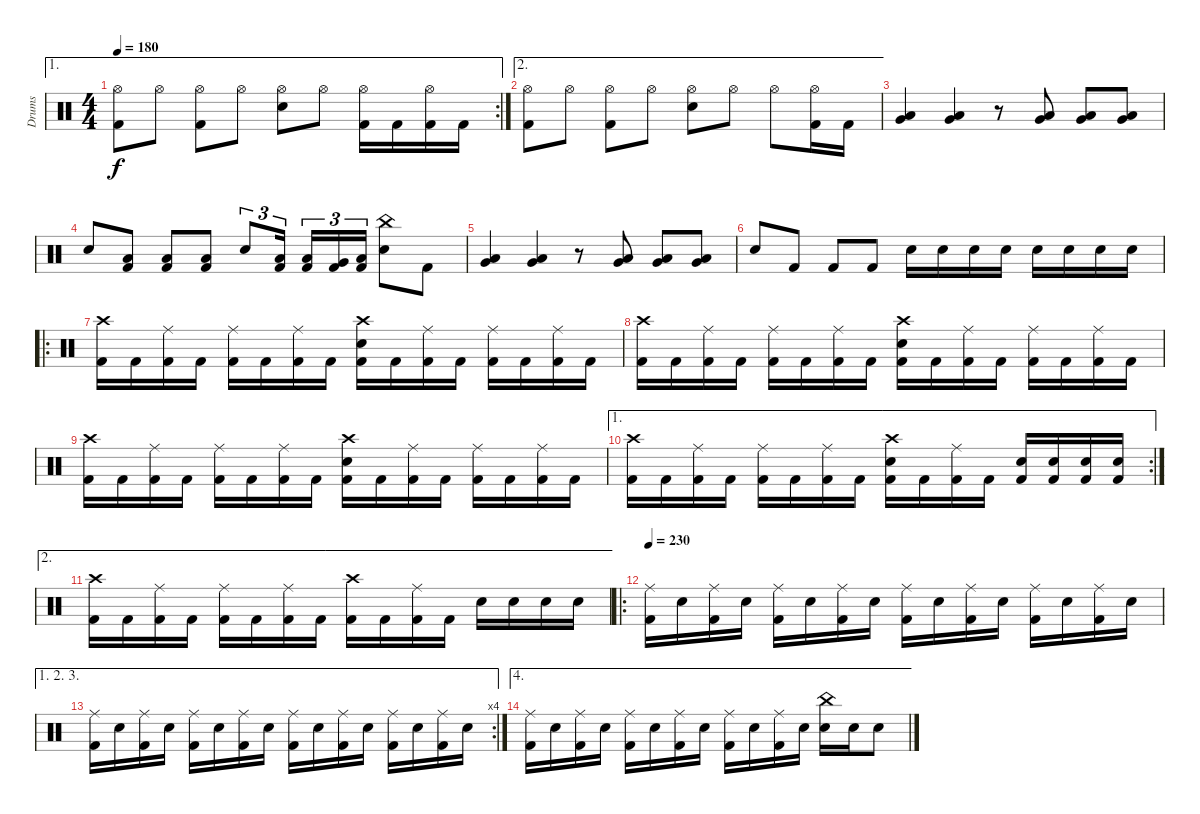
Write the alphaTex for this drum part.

\track ("Drums" "Drums") {instrument percussion}
\staff {score}
\articulation defaults
\ae 1
\rc 2
\ts (4 4)
\tempo 180
\clef neutral
\ks c
("Hi-Hat (open)" "Kick (hit) 2").8{dy f} "Hi-Hat (open)".8 ("Hi-Hat (open)" "Kick (hit) 2").8 "Hi-Hat (open)".8 ("Hi-Hat (open)" "Electric Snare (hit)").8 "Hi-Hat (open)".8 ("Hi-Hat (open)" "Kick (hit) 2").16 "Kick (hit) 2".16 ("Hi-Hat (open)" "Kick (hit) 2").16 "Kick (hit) 2".16 |
\ae 2
("Hi-Hat (open)" "Kick (hit) 2").8 "Hi-Hat (open)".8 ("Hi-Hat (open)" "Kick (hit) 2").8 "Hi-Hat (open)".8 ("Hi-Hat (open)" "Electric Snare (hit)").8 "Hi-Hat (open)".8 "Hi-Hat (open)".8 ("Hi-Hat (open)" "Kick (hit) 2").16 "Kick (hit) 2".16 |
("Low Tom (hit)" "Very Low Tom (hit)").4 ("Low Tom (hit)" "Very Low Tom (hit)").4 r.8 ("Low Tom (hit)" "Very Low Tom (hit)").8 ("Low Tom (hit)" "Very Low Tom (hit)").8 ("Low Tom (hit)" "Very Low Tom (hit)").8 |
"Electric Snare (hit)".8 ("Kick (hit) 2" "Low Floor Tom (hit)").8 ("Kick (hit) 2" "Low Floor Tom (hit)").8 ("Kick (hit) 2" "Low Floor Tom (hit)").8 "Electric Snare (hit)".8{tu (3 2)} ("Low Tom (hit)" "Kick (hit) 2").16{tu (3 2) beam splitsecondary} ("Low Tom (hit)" "Kick (hit) 2").16{tu (3 2)} ("Very Low Tom (hit)" "Kick (hit) 2").16{tu (3 2)} ("Low Floor Tom (hit)" "Kick (hit) 2").16{tu (3 2)} ("China (hit)" "Electric Snare (hit)").8 "Kick (hit) 2".8 |
("Low Tom (hit)" "Very Low Tom (hit)").4 ("Low Tom (hit)" "Very Low Tom (hit)").4 r.8 ("Low Tom (hit)" "Very Low Tom (hit)").8 ("Low Tom (hit)" "Very Low Tom (hit)").8 ("Low Tom (hit)" "Very Low Tom (hit)").8 |
"Electric Snare (hit)".8 "Kick (hit) 2".8 "Kick (hit) 2".8 "Kick (hit) 2".8 "Electric Snare (hit)".16 "Electric Snare (hit)".16 "Electric Snare (hit)".16 "Electric Snare (hit)".16 "Electric Snare (hit)".16 "Electric Snare (hit)".16 "Electric Snare (hit)".16 "Electric Snare (hit)".16 |
\ro
("Crash high (hit)" "Kick (hit) 2").16 "Kick (hit) 2".16 ("Ride (middle)" "Kick (hit) 2").16 "Kick (hit) 2".16 ("Ride (middle)" "Kick (hit) 2").16 "Kick (hit) 2".16 ("Ride (middle)" "Kick (hit) 2").16 "Kick (hit) 2".16 ("Electric Snare (hit)" "Crash high (hit)" "Kick (hit) 2").16 "Kick (hit) 2".16 ("Ride (middle)" "Kick (hit) 2").16 "Kick (hit) 2".16 ("Ride (middle)" "Kick (hit) 2").16 "Kick (hit) 2".16 ("Ride (middle)" "Kick (hit) 2").16 "Kick (hit) 2".16 |
("Crash high (hit)" "Kick (hit) 2").16 "Kick (hit) 2".16 ("Ride (middle)" "Kick (hit) 2").16 "Kick (hit) 2".16 ("Ride (middle)" "Kick (hit) 2").16 "Kick (hit) 2".16 ("Ride (middle)" "Kick (hit) 2").16 "Kick (hit) 2".16 ("Electric Snare (hit)" "Crash high (hit)" "Kick (hit) 2").16 "Kick (hit) 2".16 ("Ride (middle)" "Kick (hit) 2").16 "Kick (hit) 2".16 ("Ride (middle)" "Kick (hit) 2").16 "Kick (hit) 2".16 ("Ride (middle)" "Kick (hit) 2").16 "Kick (hit) 2".16 |
("Crash high (hit)" "Kick (hit) 2").16 "Kick (hit) 2".16 ("Ride (middle)" "Kick (hit) 2").16 "Kick (hit) 2".16 ("Ride (middle)" "Kick (hit) 2").16 "Kick (hit) 2".16 ("Ride (middle)" "Kick (hit) 2").16 "Kick (hit) 2".16 ("Electric Snare (hit)" "Crash high (hit)" "Kick (hit) 2").16 "Kick (hit) 2".16 ("Ride (middle)" "Kick (hit) 2").16 "Kick (hit) 2".16 ("Ride (middle)" "Kick (hit) 2").16 "Kick (hit) 2".16 ("Ride (middle)" "Kick (hit) 2").16 "Kick (hit) 2".16 |
\ae 1
\rc 2
("Crash high (hit)" "Kick (hit) 2").16 "Kick (hit) 2".16 ("Ride (middle)" "Kick (hit) 2").16 "Kick (hit) 2".16 ("Ride (middle)" "Kick (hit) 2").16 "Kick (hit) 2".16 ("Ride (middle)" "Kick (hit) 2").16 "Kick (hit) 2".16 ("Electric Snare (hit)" "Crash high (hit)" "Kick (hit) 2").16 "Kick (hit) 2".16 ("Ride (middle)" "Kick (hit) 2").16 "Kick (hit) 2".16 ("Electric Snare (hit)" "Kick (hit) 2").16 ("Electric Snare (hit)" "Kick (hit) 2").16 ("Electric Snare (hit)" "Kick (hit) 2").16 ("Electric Snare (hit)" "Kick (hit) 2").16 |
\ae 2
("Crash high (hit)" "Kick (hit) 2").16 "Kick (hit) 2".16 ("Ride (middle)" "Kick (hit) 2").16 "Kick (hit) 2".16 ("Ride (middle)" "Kick (hit) 2").16 "Kick (hit) 2".16 ("Ride (middle)" "Kick (hit) 2").16 "Kick (hit) 2".16 ("Crash high (hit)" "Kick (hit) 2").16 "Kick (hit) 2".16 ("Ride (middle)" "Kick (hit) 2").16 "Kick (hit) 2".16 "Electric Snare (hit)".16 "Electric Snare (hit)".16 "Electric Snare (hit)".16 "Electric Snare (hit)".16 |
\ro
\tempo 230
("Ride (middle)" "Kick (hit) 2").16 "Electric Snare (hit)".16 ("Ride (middle)" "Kick (hit) 2").16 "Electric Snare (hit)".16 ("Ride (middle)" "Kick (hit) 2").16 "Electric Snare (hit)".16 ("Ride (middle)" "Kick (hit) 2").16 "Electric Snare (hit)".16 ("Ride (middle)" "Kick (hit) 2").16 "Electric Snare (hit)".16 ("Ride (middle)" "Kick (hit) 2").16 "Electric Snare (hit)".16 ("Ride (middle)" "Kick (hit) 2").16 "Electric Snare (hit)".16 ("Ride (middle)" "Kick (hit) 2").16 "Electric Snare (hit)".16 |
\ae (1 2 3)
\rc 4
("Ride (middle)" "Kick (hit) 2").16 "Electric Snare (hit)".16 ("Ride (middle)" "Kick (hit) 2").16 "Electric Snare (hit)".16 ("Ride (middle)" "Kick (hit) 2").16 "Electric Snare (hit)".16 ("Ride (middle)" "Kick (hit) 2").16 "Electric Snare (hit)".16 ("Ride (middle)" "Kick (hit) 2").16 "Electric Snare (hit)".16 ("Ride (middle)" "Kick (hit) 2").16 "Electric Snare (hit)".16 ("Ride (middle)" "Kick (hit) 2").16 "Electric Snare (hit)".16 ("Ride (middle)" "Kick (hit) 2").16 "Electric Snare (hit)".16 |
\ae 4
("Ride (middle)" "Kick (hit) 2").16 "Electric Snare (hit)".16 ("Ride (middle)" "Kick (hit) 2").16 "Electric Snare (hit)".16 ("Ride (middle)" "Kick (hit) 2").16 "Electric Snare (hit)".16 ("Ride (middle)" "Kick (hit) 2").16 "Electric Snare (hit)".16 ("Ride (middle)" "Kick (hit) 2").16 "Electric Snare (hit)".16 ("Ride (middle)" "Kick (hit) 2").16 "Electric Snare (hit)".16 ("China (hit)" "Electric Snare (hit)").16 "Electric Snare (hit)".16 "Electric Snare (hit)".8
